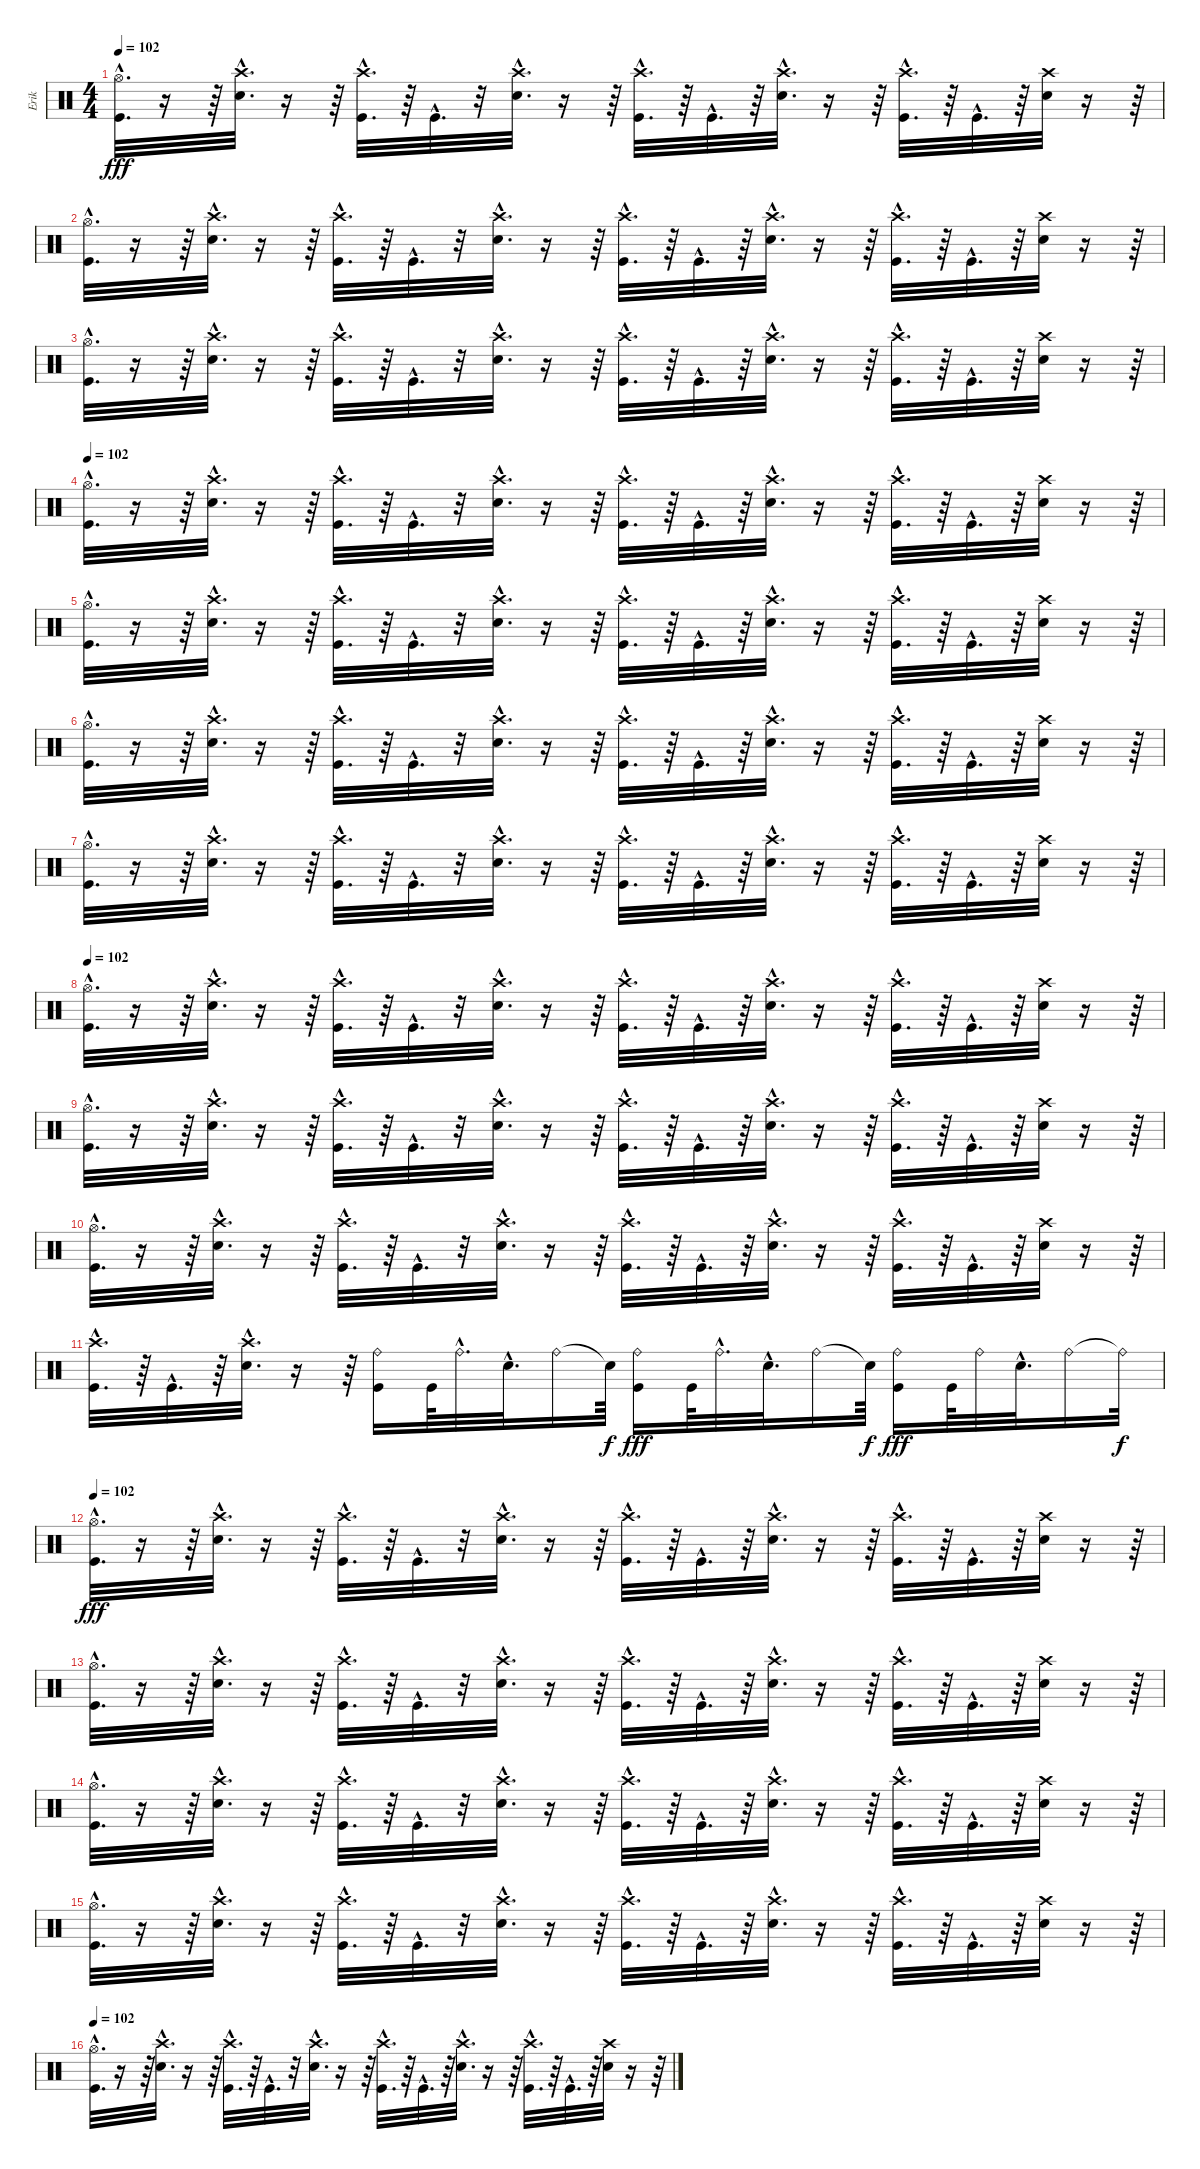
\track ("Erik" "Erik") {instrument percussion}
\staff {score}
\articulation defaults
\ts (4 4)
\tempo 102
\clef neutral
\ks c
("Hi-Hat (open)"{hac} "Kick (hit)"{hac}).32{d dy fff} r.16 r.64 ("Crash high (hit)"{hac} "Electric Snare (hit)"{hac}).32{d} r.16 r.64 ("Kick (hit)"{hac} "Crash high (hit)"{hac}).32{d} r.64 "Kick (hit)"{hac}.32{d} r.32 ("Crash high (hit)"{hac} "Electric Snare (hit)"{hac}).32{d} r.16 r.64 ("Crash high (hit)"{hac} "Kick (hit)"{hac}).32{d} r.64 "Kick (hit)"{hac}.32{d} r.64 ("Crash high (hit)"{hac} "Electric Snare (hit)"{hac}).32{d} r.16 r.64 ("Kick (hit)"{hac} "Crash high (hit)"{hac}).32{d} r.64 "Kick (hit)"{hac}.32{d} r.64 ("Electric Snare (hit)" "Crash high (hit)").32 r.16 r.64 |
("Hi-Hat (open)"{hac} "Kick (hit)"{hac}).32{d} r.16 r.64 ("Crash high (hit)"{hac} "Electric Snare (hit)"{hac}).32{d} r.16 r.64 ("Kick (hit)"{hac} "Crash high (hit)"{hac}).32{d} r.64 "Kick (hit)"{hac}.32{d} r.32 ("Crash high (hit)"{hac} "Electric Snare (hit)"{hac}).32{d} r.16 r.64 ("Crash high (hit)"{hac} "Kick (hit)"{hac}).32{d} r.64 "Kick (hit)"{hac}.32{d} r.64 ("Crash high (hit)"{hac} "Electric Snare (hit)"{hac}).32{d} r.16 r.64 ("Kick (hit)"{hac} "Crash high (hit)"{hac}).32{d} r.64 "Kick (hit)"{hac}.32{d} r.64 ("Electric Snare (hit)" "Crash high (hit)").32 r.16 r.64 |
("Hi-Hat (open)"{hac} "Kick (hit)"{hac}).32{d} r.16 r.64 ("Crash high (hit)"{hac} "Electric Snare (hit)"{hac}).32{d} r.16 r.64 ("Kick (hit)"{hac} "Crash high (hit)"{hac}).32{d} r.64 "Kick (hit)"{hac}.32{d} r.32 ("Crash high (hit)"{hac} "Electric Snare (hit)"{hac}).32{d} r.16 r.64 ("Crash high (hit)"{hac} "Kick (hit)"{hac}).32{d} r.64 "Kick (hit)"{hac}.32{d} r.64 ("Crash high (hit)"{hac} "Electric Snare (hit)"{hac}).32{d} r.16 r.64 ("Kick (hit)"{hac} "Crash high (hit)"{hac}).32{d} r.64 "Kick (hit)"{hac}.32{d} r.64 ("Electric Snare (hit)" "Crash high (hit)").32 r.16 r.64 |
\tempo 102
("Hi-Hat (open)"{hac} "Kick (hit)"{hac}).32{d} r.16 r.64 ("Crash high (hit)"{hac} "Electric Snare (hit)"{hac}).32{d} r.16 r.64 ("Kick (hit)"{hac} "Crash high (hit)"{hac}).32{d} r.64 "Kick (hit)"{hac}.32{d} r.32 ("Crash high (hit)"{hac} "Electric Snare (hit)"{hac}).32{d} r.16 r.64 ("Crash high (hit)"{hac} "Kick (hit)"{hac}).32{d} r.64 "Kick (hit)"{hac}.32{d} r.64 ("Crash high (hit)"{hac} "Electric Snare (hit)"{hac}).32{d} r.16 r.64 ("Kick (hit)"{hac} "Crash high (hit)"{hac}).32{d} r.64 "Kick (hit)"{hac}.32{d} r.64 ("Electric Snare (hit)" "Crash high (hit)").32 r.16 r.64 |
("Hi-Hat (open)"{hac} "Kick (hit)"{hac}).32{d} r.16 r.64 ("Crash high (hit)"{hac} "Electric Snare (hit)"{hac}).32{d} r.16 r.64 ("Kick (hit)"{hac} "Crash high (hit)"{hac}).32{d} r.64 "Kick (hit)"{hac}.32{d} r.32 ("Crash high (hit)"{hac} "Electric Snare (hit)"{hac}).32{d} r.16 r.64 ("Crash high (hit)"{hac} "Kick (hit)"{hac}).32{d} r.64 "Kick (hit)"{hac}.32{d} r.64 ("Crash high (hit)"{hac} "Electric Snare (hit)"{hac}).32{d} r.16 r.64 ("Kick (hit)"{hac} "Crash high (hit)"{hac}).32{d} r.64 "Kick (hit)"{hac}.32{d} r.64 ("Electric Snare (hit)" "Crash high (hit)").32 r.16 r.64 |
("Hi-Hat (open)"{hac} "Kick (hit)"{hac}).32{d} r.16 r.64 ("Crash high (hit)"{hac} "Electric Snare (hit)"{hac}).32{d} r.16 r.64 ("Kick (hit)"{hac} "Crash high (hit)"{hac}).32{d} r.64 "Kick (hit)"{hac}.32{d} r.32 ("Crash high (hit)"{hac} "Electric Snare (hit)"{hac}).32{d} r.16 r.64 ("Crash high (hit)"{hac} "Kick (hit)"{hac}).32{d} r.64 "Kick (hit)"{hac}.32{d} r.64 ("Crash high (hit)"{hac} "Electric Snare (hit)"{hac}).32{d} r.16 r.64 ("Kick (hit)"{hac} "Crash high (hit)"{hac}).32{d} r.64 "Kick (hit)"{hac}.32{d} r.64 ("Electric Snare (hit)" "Crash high (hit)").32 r.16 r.64 |
("Hi-Hat (open)"{hac} "Kick (hit)"{hac}).32{d} r.16 r.64 ("Crash high (hit)"{hac} "Electric Snare (hit)"{hac}).32{d} r.16 r.64 ("Kick (hit)"{hac} "Crash high (hit)"{hac}).32{d} r.64 "Kick (hit)"{hac}.32{d} r.32 ("Crash high (hit)"{hac} "Electric Snare (hit)"{hac}).32{d} r.16 r.64 ("Crash high (hit)"{hac} "Kick (hit)"{hac}).32{d} r.64 "Kick (hit)"{hac}.32{d} r.64 ("Crash high (hit)"{hac} "Electric Snare (hit)"{hac}).32{d} r.16 r.64 ("Kick (hit)"{hac} "Crash high (hit)"{hac}).32{d} r.64 "Kick (hit)"{hac}.32{d} r.64 ("Electric Snare (hit)" "Crash high (hit)").32 r.16 r.64 |
\tempo 102
("Hi-Hat (open)"{hac} "Kick (hit)"{hac}).32{d} r.16 r.64 ("Crash high (hit)"{hac} "Electric Snare (hit)"{hac}).32{d} r.16 r.64 ("Kick (hit)"{hac} "Crash high (hit)"{hac}).32{d} r.64 "Kick (hit)"{hac}.32{d} r.32 ("Crash high (hit)"{hac} "Electric Snare (hit)"{hac}).32{d} r.16 r.64 ("Crash high (hit)"{hac} "Kick (hit)"{hac}).32{d} r.64 "Kick (hit)"{hac}.32{d} r.64 ("Crash high (hit)"{hac} "Electric Snare (hit)"{hac}).32{d} r.16 r.64 ("Kick (hit)"{hac} "Crash high (hit)"{hac}).32{d} r.64 "Kick (hit)"{hac}.32{d} r.64 ("Electric Snare (hit)" "Crash high (hit)").32 r.16 r.64 |
("Hi-Hat (open)"{hac} "Kick (hit)"{hac}).32{d} r.16 r.64 ("Crash high (hit)"{hac} "Electric Snare (hit)"{hac}).32{d} r.16 r.64 ("Kick (hit)"{hac} "Crash high (hit)"{hac}).32{d} r.64 "Kick (hit)"{hac}.32{d} r.32 ("Crash high (hit)"{hac} "Electric Snare (hit)"{hac}).32{d} r.16 r.64 ("Crash high (hit)"{hac} "Kick (hit)"{hac}).32{d} r.64 "Kick (hit)"{hac}.32{d} r.64 ("Crash high (hit)"{hac} "Electric Snare (hit)"{hac}).32{d} r.16 r.64 ("Kick (hit)"{hac} "Crash high (hit)"{hac}).32{d} r.64 "Kick (hit)"{hac}.32{d} r.64 ("Electric Snare (hit)" "Crash high (hit)").32 r.16 r.64 |
("Hi-Hat (open)"{hac} "Kick (hit)"{hac}).32{d} r.16 r.64 ("Crash high (hit)"{hac} "Electric Snare (hit)"{hac}).32{d} r.16 r.64 ("Kick (hit)"{hac} "Crash high (hit)"{hac}).32{d} r.64 "Kick (hit)"{hac}.32{d} r.32 ("Crash high (hit)"{hac} "Electric Snare (hit)"{hac}).32{d} r.16 r.64 ("Crash high (hit)"{hac} "Kick (hit)"{hac}).32{d} r.64 "Kick (hit)"{hac}.32{d} r.64 ("Crash high (hit)"{hac} "Electric Snare (hit)"{hac}).32{d} r.16 r.64 ("Kick (hit)"{hac} "Crash high (hit)"{hac}).32{d} r.64 "Kick (hit)"{hac}.32{d} r.64 ("Electric Snare (hit)" "Crash high (hit)").32 r.16 r.64 |
("Crash high (hit)"{hac} "Kick (hit)"{hac}).32{d} r.64 "Kick (hit)"{hac}.32{d} r.64 ("Crash high (hit)"{hac} "Electric Snare (hit)"{hac}).32{d} r.16 r.64 ("Kick (hit)" "Ride (bell)").16 "Kick (hit)".64 "Ride (bell)"{hac}.32{d} "Electric Snare (hit)"{hac}.32{d} "Ride (bell)".16 "Snare (hit)"{t}.64{dy f} ("Ride (bell)" "Kick (hit)").16{dy fff} "Kick (hit)".64 "Ride (bell)"{hac}.32{d} "Electric Snare (hit)"{hac}.32{d} "Ride (bell)".16 "Snare (hit)"{t}.64{dy f} ("Ride (bell)" "Kick (hit)").16{dy fff} "Kick (hit)".64 "Ride (bell)".32 "Electric Snare (hit)"{hac}.32{d} "Ride (bell)".16 "Ride (bell)"{t}.32{dy f} |
\tempo 102
("Hi-Hat (open)"{hac} "Kick (hit)"{hac}).32{d dy fff} r.16 r.64 ("Crash high (hit)"{hac} "Electric Snare (hit)"{hac}).32{d} r.16 r.64 ("Kick (hit)"{hac} "Crash high (hit)"{hac}).32{d} r.64 "Kick (hit)"{hac}.32{d} r.32 ("Crash high (hit)"{hac} "Electric Snare (hit)"{hac}).32{d} r.16 r.64 ("Crash high (hit)"{hac} "Kick (hit)"{hac}).32{d} r.64 "Kick (hit)"{hac}.32{d} r.64 ("Crash high (hit)"{hac} "Electric Snare (hit)"{hac}).32{d} r.16 r.64 ("Kick (hit)"{hac} "Crash high (hit)"{hac}).32{d} r.64 "Kick (hit)"{hac}.32{d} r.64 ("Electric Snare (hit)" "Crash high (hit)").32 r.16 r.64 |
("Hi-Hat (open)"{hac} "Kick (hit)"{hac}).32{d} r.16 r.64 ("Crash high (hit)"{hac} "Electric Snare (hit)"{hac}).32{d} r.16 r.64 ("Kick (hit)"{hac} "Crash high (hit)"{hac}).32{d} r.64 "Kick (hit)"{hac}.32{d} r.32 ("Crash high (hit)"{hac} "Electric Snare (hit)"{hac}).32{d} r.16 r.64 ("Crash high (hit)"{hac} "Kick (hit)"{hac}).32{d} r.64 "Kick (hit)"{hac}.32{d} r.64 ("Crash high (hit)"{hac} "Electric Snare (hit)"{hac}).32{d} r.16 r.64 ("Kick (hit)"{hac} "Crash high (hit)"{hac}).32{d} r.64 "Kick (hit)"{hac}.32{d} r.64 ("Electric Snare (hit)" "Crash high (hit)").32 r.16 r.64 |
("Hi-Hat (open)"{hac} "Kick (hit)"{hac}).32{d} r.16 r.64 ("Crash high (hit)"{hac} "Electric Snare (hit)"{hac}).32{d} r.16 r.64 ("Kick (hit)"{hac} "Crash high (hit)"{hac}).32{d} r.64 "Kick (hit)"{hac}.32{d} r.32 ("Crash high (hit)"{hac} "Electric Snare (hit)"{hac}).32{d} r.16 r.64 ("Crash high (hit)"{hac} "Kick (hit)"{hac}).32{d} r.64 "Kick (hit)"{hac}.32{d} r.64 ("Crash high (hit)"{hac} "Electric Snare (hit)"{hac}).32{d} r.16 r.64 ("Kick (hit)"{hac} "Crash high (hit)"{hac}).32{d} r.64 "Kick (hit)"{hac}.32{d} r.64 ("Electric Snare (hit)" "Crash high (hit)").32 r.16 r.64 |
("Hi-Hat (open)"{hac} "Kick (hit)"{hac}).32{d} r.16 r.64 ("Crash high (hit)"{hac} "Electric Snare (hit)"{hac}).32{d} r.16 r.64 ("Kick (hit)"{hac} "Crash high (hit)"{hac}).32{d} r.64 "Kick (hit)"{hac}.32{d} r.32 ("Crash high (hit)"{hac} "Electric Snare (hit)"{hac}).32{d} r.16 r.64 ("Crash high (hit)"{hac} "Kick (hit)"{hac}).32{d} r.64 "Kick (hit)"{hac}.32{d} r.64 ("Crash high (hit)"{hac} "Electric Snare (hit)"{hac}).32{d} r.16 r.64 ("Kick (hit)"{hac} "Crash high (hit)"{hac}).32{d} r.64 "Kick (hit)"{hac}.32{d} r.64 ("Electric Snare (hit)" "Crash high (hit)").32 r.16 r.64 |
\tempo 102
("Hi-Hat (open)"{hac} "Kick (hit)"{hac}).32{d} r.16 r.64 ("Crash high (hit)"{hac} "Electric Snare (hit)"{hac}).32{d} r.16 r.64 ("Kick (hit)"{hac} "Crash high (hit)"{hac}).32{d} r.64 "Kick (hit)"{hac}.32{d} r.32 ("Crash high (hit)"{hac} "Electric Snare (hit)"{hac}).32{d} r.16 r.64 ("Crash high (hit)"{hac} "Kick (hit)"{hac}).32{d} r.64 "Kick (hit)"{hac}.32{d} r.64 ("Crash high (hit)"{hac} "Electric Snare (hit)"{hac}).32{d} r.16 r.64 ("Kick (hit)"{hac} "Crash high (hit)"{hac}).32{d} r.64 "Kick (hit)"{hac}.32{d} r.64 ("Electric Snare (hit)" "Crash high (hit)").32 r.16 r.64
